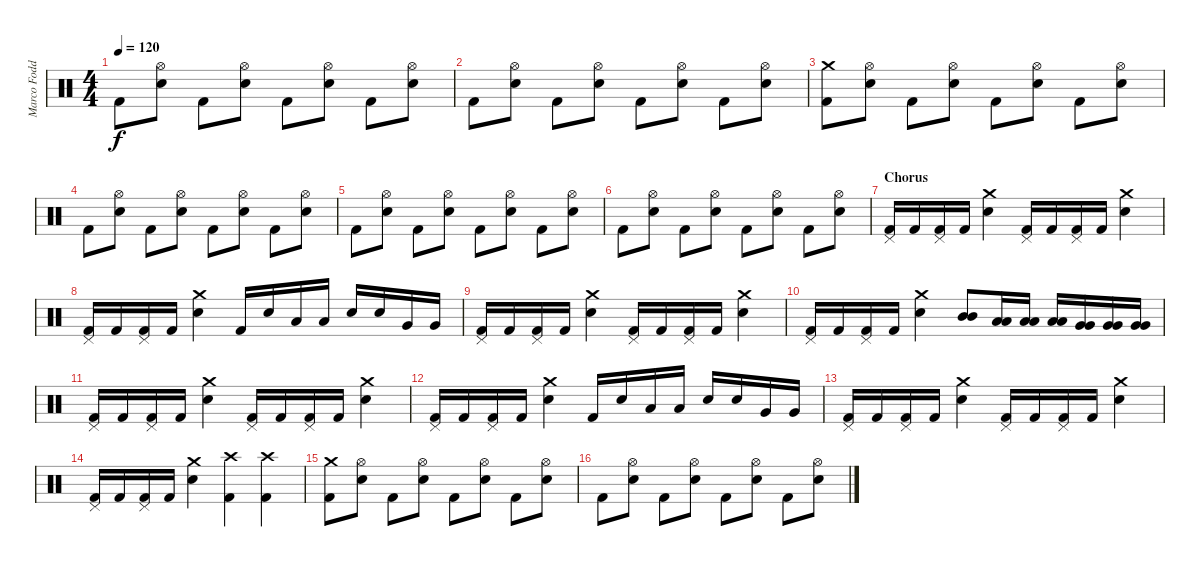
\track ("Marco Foddis " "Marco Fodd") {instrument percussion}
\staff {score}
\articulation defaults
\ts (4 4)
\tempo 120
\clef neutral
\ks c "Kick (hit) 2".8{dy f}
("Hi-Hat (open)" "Electric Snare (hit)").8 "Kick (hit) 2".8 ("Hi-Hat (open)" "Electric Snare (hit)").8 "Kick (hit) 2".8 ("Hi-Hat (open)" "Electric Snare (hit)").8 "Kick (hit) 2".8 ("Hi-Hat (open)" "Electric Snare (hit)").8 |
"Kick (hit) 2".8 ("Hi-Hat (open)" "Electric Snare (hit)").8 "Kick (hit) 2".8 ("Hi-Hat (open)" "Electric Snare (hit)").8 "Kick (hit) 2".8 ("Hi-Hat (open)" "Electric Snare (hit)").8 "Kick (hit) 2".8 ("Hi-Hat (open)" "Electric Snare (hit)").8 |
("Crash medium (hit)" "Kick (hit) 2").8 ("Hi-Hat (open)" "Electric Snare (hit)").8 "Kick (hit) 2".8 ("Hi-Hat (open)" "Electric Snare (hit)").8 "Kick (hit) 2".8 ("Hi-Hat (open)" "Electric Snare (hit)").8 "Kick (hit) 2".8 ("Hi-Hat (open)" "Electric Snare (hit)").8 |
"Kick (hit) 2".8 ("Hi-Hat (open)" "Electric Snare (hit)").8 "Kick (hit) 2".8 ("Hi-Hat (open)" "Electric Snare (hit)").8 "Kick (hit) 2".8 ("Hi-Hat (open)" "Electric Snare (hit)").8 "Kick (hit) 2".8 ("Hi-Hat (open)" "Electric Snare (hit)").8 |
"Kick (hit) 2".8 ("Hi-Hat (open)" "Electric Snare (hit)").8 "Kick (hit) 2".8 ("Hi-Hat (open)" "Electric Snare (hit)").8 "Kick (hit) 2".8 ("Hi-Hat (open)" "Electric Snare (hit)").8 "Kick (hit) 2".8 ("Hi-Hat (open)" "Electric Snare (hit)").8 |
"Kick (hit) 2".8 ("Hi-Hat (open)" "Electric Snare (hit)").8 "Kick (hit) 2".8 ("Hi-Hat (open)" "Electric Snare (hit)").8 "Kick (hit) 2".8 ("Hi-Hat (open)" "Electric Snare (hit)").8 "Kick (hit) 2".8 ("Hi-Hat (open)" "Electric Snare (hit)").8 |
\section ("" "Chorus")
("Pedal Hi-Hat (hit)" "Kick (hit) 2").16 "Kick (hit) 2".16 ("Pedal Hi-Hat (hit)" "Kick (hit) 2").16 "Kick (hit) 2".16 ("Crash medium (hit)" "Electric Snare (hit)").4 ("Pedal Hi-Hat (hit)" "Kick (hit) 2").16 "Kick (hit) 2".16 ("Pedal Hi-Hat (hit)" "Kick (hit) 2").16 "Kick (hit) 2".16 ("Crash medium (hit)" "Electric Snare (hit)").4 |
("Pedal Hi-Hat (hit)" "Kick (hit) 2").16 "Kick (hit) 2".16 ("Pedal Hi-Hat (hit)" "Kick (hit) 2").16 "Kick (hit) 2".16 ("Crash medium (hit)" "Electric Snare (hit)").4 "Kick (hit) 2".16 "Electric Snare (hit)".16 "Low Tom (hit)".16 "Low Tom (hit)".16 "Electric Snare (hit)".16 "Electric Snare (hit)".16 "Very Low Tom (hit)".16 "Very Low Tom (hit)".16 |
("Pedal Hi-Hat (hit)" "Kick (hit) 2").16 "Kick (hit) 2".16 ("Pedal Hi-Hat (hit)" "Kick (hit) 2").16 "Kick (hit) 2".16 ("Crash medium (hit)" "Electric Snare (hit)").4 ("Pedal Hi-Hat (hit)" "Kick (hit) 2").16 "Kick (hit) 2".16 ("Pedal Hi-Hat (hit)" "Kick (hit) 2").16 "Kick (hit) 2".16 ("Crash medium (hit)" "Electric Snare (hit)").4 |
("Pedal Hi-Hat (hit)" "Kick (hit) 2").16 "Kick (hit) 2".16 ("Pedal Hi-Hat (hit)" "Kick (hit) 2").16 "Kick (hit) 2".16 ("Crash medium (hit)" "Electric Snare (hit)").4 ("Mid Tom (hit)" "Mid Tom (hit)").8 ("Low Tom (hit)" "Low Tom (hit)").16 ("Low Tom (hit)" "Low Tom (hit)").16 ("Low Tom (hit)" "Low Tom (hit)").16 ("Very Low Tom (hit)" "Very Low Tom (hit)").16 ("Very Low Tom (hit)" "Very Low Tom (hit)").16 ("Very Low Tom (hit)" "Very Low Tom (hit)").16 |
("Pedal Hi-Hat (hit)" "Kick (hit) 2").16 "Kick (hit) 2".16 ("Pedal Hi-Hat (hit)" "Kick (hit) 2").16 "Kick (hit) 2".16 ("Crash medium (hit)" "Electric Snare (hit)").4 ("Pedal Hi-Hat (hit)" "Kick (hit) 2").16 "Kick (hit) 2".16 ("Pedal Hi-Hat (hit)" "Kick (hit) 2").16 "Kick (hit) 2".16 ("Crash medium (hit)" "Electric Snare (hit)").4 |
("Pedal Hi-Hat (hit)" "Kick (hit) 2").16 "Kick (hit) 2".16 ("Pedal Hi-Hat (hit)" "Kick (hit) 2").16 "Kick (hit) 2".16 ("Crash medium (hit)" "Electric Snare (hit)").4 "Kick (hit) 2".16 "Electric Snare (hit)".16 "Low Tom (hit)".16 "Low Tom (hit)".16 "Electric Snare (hit)".16 "Electric Snare (hit)".16 "Very Low Tom (hit)".16 "Very Low Tom (hit)".16 |
("Pedal Hi-Hat (hit)" "Kick (hit) 2").16 "Kick (hit) 2".16 ("Pedal Hi-Hat (hit)" "Kick (hit) 2").16 "Kick (hit) 2".16 ("Crash medium (hit)" "Electric Snare (hit)").4 ("Pedal Hi-Hat (hit)" "Kick (hit) 2").16 "Kick (hit) 2".16 ("Pedal Hi-Hat (hit)" "Kick (hit) 2").16 "Kick (hit) 2".16 ("Crash medium (hit)" "Electric Snare (hit)").4 |
("Pedal Hi-Hat (hit)" "Kick (hit) 2").16 "Kick (hit) 2".16 ("Pedal Hi-Hat (hit)" "Kick (hit) 2").16 "Kick (hit) 2".16 ("Crash medium (hit)" "Electric Snare (hit)").4 ("Crash high (hit)" "Kick (hit) 2").4 ("Crash high (hit)" "Kick (hit) 2").4 |
("Crash medium (hit)" "Kick (hit) 2").8 ("Hi-Hat (open)" "Electric Snare (hit)").8 "Kick (hit) 2".8 ("Hi-Hat (open)" "Electric Snare (hit)").8 "Kick (hit) 2".8 ("Hi-Hat (open)" "Electric Snare (hit)").8 "Kick (hit) 2".8 ("Hi-Hat (open)" "Electric Snare (hit)").8 |
"Kick (hit) 2".8 ("Hi-Hat (open)" "Electric Snare (hit)").8 "Kick (hit) 2".8 ("Hi-Hat (open)" "Electric Snare (hit)").8 "Kick (hit) 2".8 ("Hi-Hat (open)" "Electric Snare (hit)").8 "Kick (hit) 2".8 ("Hi-Hat (open)" "Electric Snare (hit)").8
